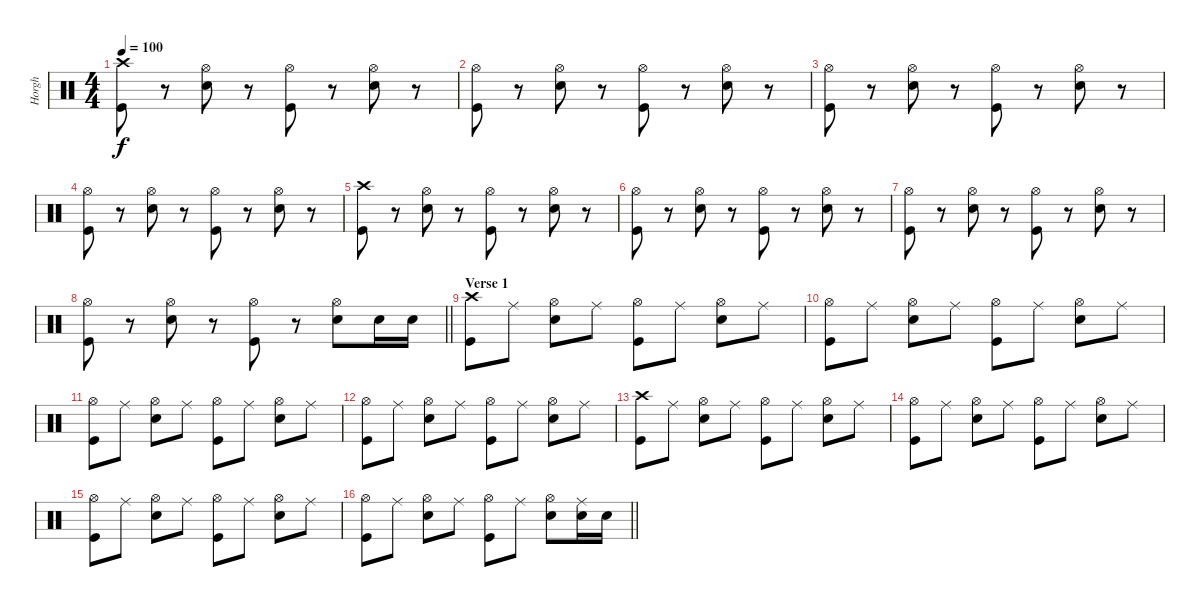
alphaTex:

\track ("Horgh" "Horgh") {instrument percussion}
\staff {score}
\articulation defaults
\ts (4 4)
\tempo 100
\clef neutral
\ks c
("Crash high (hit)" "Kick (hit)").8{dy f} r.8 ("Hi-Hat (open)" "Electric Snare (hit)").8 r.8 ("Hi-Hat (open)" "Kick (hit)").8 r.8 ("Hi-Hat (open)" "Electric Snare (hit)").8 r.8 |
("Hi-Hat (open)" "Kick (hit)").8 r.8 ("Hi-Hat (open)" "Electric Snare (hit)").8 r.8 ("Hi-Hat (open)" "Kick (hit)").8 r.8 ("Hi-Hat (open)" "Electric Snare (hit)").8 r.8 |
("Hi-Hat (open)" "Kick (hit)").8 r.8 ("Hi-Hat (open)" "Electric Snare (hit)").8 r.8 ("Hi-Hat (open)" "Kick (hit)").8 r.8 ("Hi-Hat (open)" "Electric Snare (hit)").8 r.8 |
("Hi-Hat (open)" "Kick (hit)").8 r.8 ("Hi-Hat (open)" "Electric Snare (hit)").8 r.8 ("Hi-Hat (open)" "Kick (hit)").8 r.8 ("Hi-Hat (open)" "Electric Snare (hit)").8 r.8 |
("Crash high (hit)" "Kick (hit)").8 r.8 ("Hi-Hat (open)" "Electric Snare (hit)").8 r.8 ("Hi-Hat (open)" "Kick (hit)").8 r.8 ("Hi-Hat (open)" "Electric Snare (hit)").8 r.8 |
("Hi-Hat (open)" "Kick (hit)").8 r.8 ("Hi-Hat (open)" "Electric Snare (hit)").8 r.8 ("Hi-Hat (open)" "Kick (hit)").8 r.8 ("Hi-Hat (open)" "Electric Snare (hit)").8 r.8 |
("Hi-Hat (open)" "Kick (hit)").8 r.8 ("Hi-Hat (open)" "Electric Snare (hit)").8 r.8 ("Hi-Hat (open)" "Kick (hit)").8 r.8 ("Hi-Hat (open)" "Electric Snare (hit)").8 r.8 |
\barLineRight lightlight
("Hi-Hat (open)" "Kick (hit)").8 r.8 ("Hi-Hat (open)" "Electric Snare (hit)").8 r.8 ("Hi-Hat (open)" "Kick (hit)").8 r.8 ("Hi-Hat (open)" "Electric Snare (hit)").8 "Electric Snare (hit)".16 "Electric Snare (hit)".16 |
\section ("" "Verse 1")
("Crash high (hit)" "Kick (hit)").8 "Ride (middle)".8 ("Hi-Hat (open)" "Electric Snare (hit)").8 "Ride (middle)".8 ("Hi-Hat (open)" "Kick (hit)").8 "Ride (middle)".8 ("Hi-Hat (open)" "Electric Snare (hit)").8 "Ride (middle)".8 |
("Hi-Hat (open)" "Kick (hit)").8 "Ride (middle)".8 ("Hi-Hat (open)" "Electric Snare (hit)").8 "Ride (middle)".8 ("Hi-Hat (open)" "Kick (hit)").8 "Ride (middle)".8 ("Hi-Hat (open)" "Electric Snare (hit)").8 "Ride (middle)".8 |
("Hi-Hat (open)" "Kick (hit)").8 "Ride (middle)".8 ("Hi-Hat (open)" "Electric Snare (hit)").8 "Ride (middle)".8 ("Hi-Hat (open)" "Kick (hit)").8 "Ride (middle)".8 ("Hi-Hat (open)" "Electric Snare (hit)").8 "Ride (middle)".8 |
("Hi-Hat (open)" "Kick (hit)").8 "Ride (middle)".8 ("Hi-Hat (open)" "Electric Snare (hit)").8 "Ride (middle)".8 ("Hi-Hat (open)" "Kick (hit)").8 "Ride (middle)".8 ("Hi-Hat (open)" "Electric Snare (hit)").8 "Ride (middle)".8 |
("Crash high (hit)" "Kick (hit)").8 "Ride (middle)".8 ("Hi-Hat (open)" "Electric Snare (hit)").8 "Ride (middle)".8 ("Hi-Hat (open)" "Kick (hit)").8 "Ride (middle)".8 ("Hi-Hat (open)" "Electric Snare (hit)").8 "Ride (middle)".8 |
("Hi-Hat (open)" "Kick (hit)").8 "Ride (middle)".8 ("Hi-Hat (open)" "Electric Snare (hit)").8 "Ride (middle)".8 ("Hi-Hat (open)" "Kick (hit)").8 "Ride (middle)".8 ("Hi-Hat (open)" "Electric Snare (hit)").8 "Ride (middle)".8 |
("Hi-Hat (open)" "Kick (hit)").8 "Ride (middle)".8 ("Hi-Hat (open)" "Electric Snare (hit)").8 "Ride (middle)".8 ("Hi-Hat (open)" "Kick (hit)").8 "Ride (middle)".8 ("Hi-Hat (open)" "Electric Snare (hit)").8 "Ride (middle)".8 |
\barLineRight lightlight
("Hi-Hat (open)" "Kick (hit)").8 "Ride (middle)".8 ("Hi-Hat (open)" "Electric Snare (hit)").8 "Ride (middle)".8 ("Hi-Hat (open)" "Kick (hit)").8 "Ride (middle)".8 ("Hi-Hat (open)" "Electric Snare (hit)").8 ("Ride (middle)" "Electric Snare (hit)").16 "Electric Snare (hit)".16
